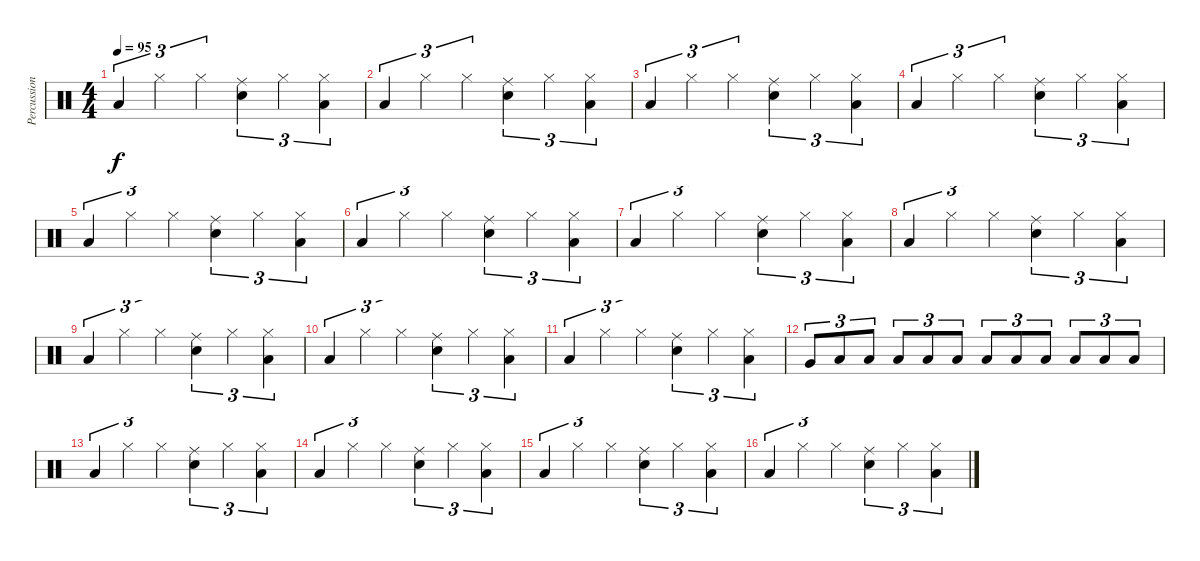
\track ("Percussion" "Percussion") {instrument percussion}
\staff {score}
\articulation defaults
\ts (4 4)
\tempo 95
\clef neutral
\ks c "Low Floor Tom (hit)".4{tu (3 2) dy f} "Hi-Hat (closed)".4{tu (3 2)} "Hi-Hat (closed)".4{tu (3 2)}
("Electric Snare (hit)" "Ride (middle)").4{tu (3 2)} "Hi-Hat (closed)".4{tu (3 2)} ("Hi-Hat (closed)" "Low Floor Tom (hit)").4{tu (3 2)} |
"Low Floor Tom (hit)".4{tu (3 2)} "Hi-Hat (closed)".4{tu (3 2)} "Hi-Hat (closed)".4{tu (3 2)} ("Electric Snare (hit)" "Ride (middle)").4{tu (3 2)} "Hi-Hat (closed)".4{tu (3 2)} ("Hi-Hat (closed)" "Low Floor Tom (hit)").4{tu (3 2)} |
"Low Floor Tom (hit)".4{tu (3 2)} "Hi-Hat (closed)".4{tu (3 2)} "Hi-Hat (closed)".4{tu (3 2)} ("Electric Snare (hit)" "Ride (middle)").4{tu (3 2)} "Hi-Hat (closed)".4{tu (3 2)} ("Hi-Hat (closed)" "Low Floor Tom (hit)").4{tu (3 2)} |
"Low Floor Tom (hit)".4{tu (3 2)} "Hi-Hat (closed)".4{tu (3 2)} "Hi-Hat (closed)".4{tu (3 2)} ("Electric Snare (hit)" "Ride (middle)").4{tu (3 2)} "Hi-Hat (closed)".4{tu (3 2)} ("Hi-Hat (closed)" "Low Floor Tom (hit)").4{tu (3 2)} |
"Low Floor Tom (hit)".4{tu (3 2)} "Hi-Hat (closed)".4{tu (3 2)} "Hi-Hat (closed)".4{tu (3 2)} ("Electric Snare (hit)" "Ride (middle)").4{tu (3 2)} "Hi-Hat (closed)".4{tu (3 2)} ("Hi-Hat (closed)" "Low Floor Tom (hit)").4{tu (3 2)} |
"Low Floor Tom (hit)".4{tu (3 2)} "Hi-Hat (closed)".4{tu (3 2)} "Hi-Hat (closed)".4{tu (3 2)} ("Electric Snare (hit)" "Ride (middle)").4{tu (3 2)} "Hi-Hat (closed)".4{tu (3 2)} ("Hi-Hat (closed)" "Low Floor Tom (hit)").4{tu (3 2)} |
"Low Floor Tom (hit)".4{tu (3 2)} "Hi-Hat (closed)".4{tu (3 2)} "Hi-Hat (closed)".4{tu (3 2)} ("Electric Snare (hit)" "Ride (middle)").4{tu (3 2)} "Hi-Hat (closed)".4{tu (3 2)} ("Hi-Hat (closed)" "Low Floor Tom (hit)").4{tu (3 2)} |
"Low Floor Tom (hit)".4{tu (3 2) volume 12} "Hi-Hat (closed)".4{tu (3 2)} "Hi-Hat (closed)".4{tu (3 2)} ("Electric Snare (hit)" "Ride (middle)").4{tu (3 2)} "Hi-Hat (closed)".4{tu (3 2)} ("Hi-Hat (closed)" "Low Floor Tom (hit)").4{tu (3 2)} |
"Low Floor Tom (hit)".4{tu (3 2)} "Hi-Hat (closed)".4{tu (3 2)} "Hi-Hat (closed)".4{tu (3 2)} ("Electric Snare (hit)" "Ride (middle)").4{tu (3 2)} "Hi-Hat (closed)".4{tu (3 2)} ("Hi-Hat (closed)" "Low Floor Tom (hit)").4{tu (3 2)} |
"Low Floor Tom (hit)".4{tu (3 2)} "Hi-Hat (closed)".4{tu (3 2)} "Hi-Hat (closed)".4{tu (3 2)} ("Electric Snare (hit)" "Ride (middle)").4{tu (3 2)} "Hi-Hat (closed)".4{tu (3 2)} ("Hi-Hat (closed)" "Low Floor Tom (hit)").4{tu (3 2)} |
"Low Floor Tom (hit)".4{tu (3 2)} "Hi-Hat (closed)".4{tu (3 2)} "Hi-Hat (closed)".4{tu (3 2)} ("Electric Snare (hit)" "Ride (middle)").4{tu (3 2)} "Hi-Hat (closed)".4{tu (3 2)} ("Hi-Hat (closed)" "Low Floor Tom (hit)").4{tu (3 2)} |
"Very Low Tom (hit)".8{tu (3 2)} "Low Tom (hit)".8{tu (3 2)} "Low Tom (hit)".8{tu (3 2)} "Low Tom (hit)".8{tu (3 2)} "Low Tom (hit)".8{tu (3 2)} "Low Tom (hit)".8{tu (3 2)} "Low Floor Tom (hit)".8{tu (3 2)} "Low Tom (hit)".8{tu (3 2)} "Low Tom (hit)".8{tu (3 2)} "Low Tom (hit)".8{tu (3 2)} "Low Tom (hit)".8{tu (3 2)} "Low Tom (hit)".8{tu (3 2)} |
"Low Floor Tom (hit)".4{tu (3 2)} "Hi-Hat (closed)".4{tu (3 2)} "Hi-Hat (closed)".4{tu (3 2)} ("Electric Snare (hit)" "Ride (middle)").4{tu (3 2)} "Hi-Hat (closed)".4{tu (3 2)} ("Hi-Hat (closed)" "Low Floor Tom (hit)").4{tu (3 2)} |
"Low Floor Tom (hit)".4{tu (3 2)} "Hi-Hat (closed)".4{tu (3 2)} "Hi-Hat (closed)".4{tu (3 2)} ("Electric Snare (hit)" "Ride (middle)").4{tu (3 2)} "Hi-Hat (closed)".4{tu (3 2)} ("Hi-Hat (closed)" "Low Floor Tom (hit)").4{tu (3 2)} |
"Low Floor Tom (hit)".4{tu (3 2)} "Hi-Hat (closed)".4{tu (3 2)} "Hi-Hat (closed)".4{tu (3 2)} ("Electric Snare (hit)" "Ride (middle)").4{tu (3 2)} "Hi-Hat (closed)".4{tu (3 2)} ("Hi-Hat (closed)" "Low Floor Tom (hit)").4{tu (3 2)} |
"Low Floor Tom (hit)".4{tu (3 2)} "Hi-Hat (closed)".4{tu (3 2)} "Hi-Hat (closed)".4{tu (3 2)} ("Electric Snare (hit)" "Ride (middle)").4{tu (3 2)} "Hi-Hat (closed)".4{tu (3 2)} ("Hi-Hat (closed)" "Low Floor Tom (hit)").4{tu (3 2)}
